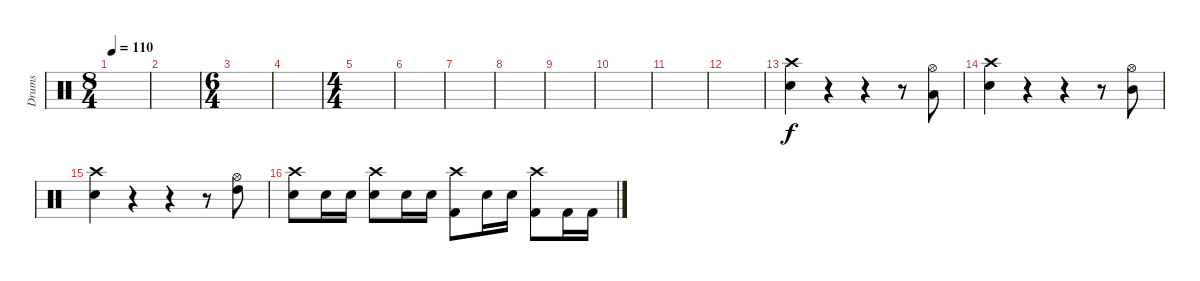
\track ("Drums" "Drums") {instrument percussion}
\staff {score}
\articulation defaults
\ts (8 4)
\tempo 110
\clef neutral
\ks c
|
|
\ts (6 4)
|
|
\ts (4 4)
|
|
|
|
|
|
|
|
("Crash high (hit)" "Snare (hit) 2").4 r.4 r.4 r.8 ("Hi-Hat (open)" "Low Tom (hit)").8 |
("Crash high (hit)" "Snare (hit) 2").4 r.4 r.4 r.8 ("Hi-Hat (open)" "Mid Tom (hit)").8 |
("Crash high (hit)" "Snare (hit) 2").4 r.4 r.4 r.8 ("Hi-Hat (open)" "High Tom (hit)").8 |
("Crash high (hit)" "Snare (hit) 2").8 "Snare (hit) 2".16 "Snare (hit) 2".16 ("Crash high (hit)" "Snare (hit) 2").8 "Snare (hit) 2".16 "Snare (hit) 2".16 ("Crash high (hit)" "Kick (hit) 2").8 "Snare (hit) 2".16 "Snare (hit) 2".16 ("Crash high (hit)" "Kick (hit) 2").8 "Kick (hit) 2".16 "Kick (hit) 2".16
